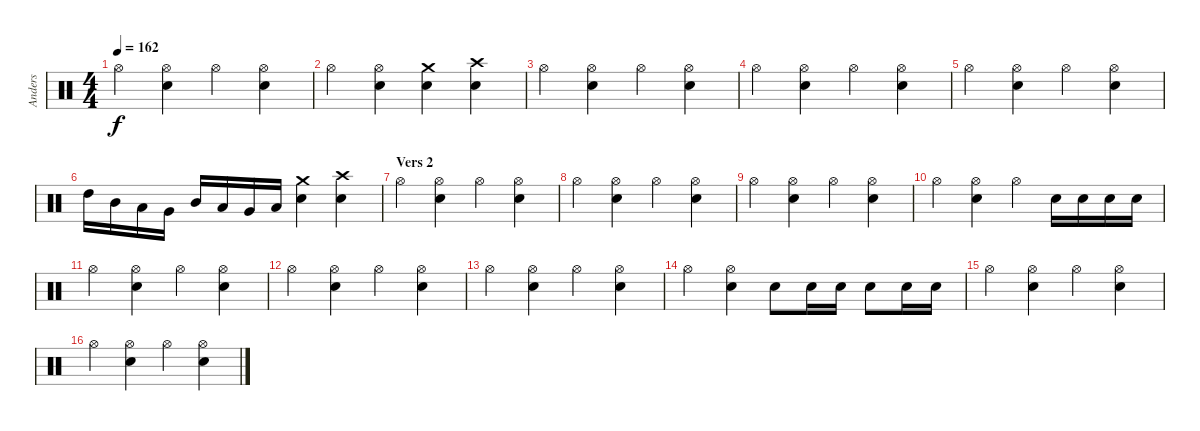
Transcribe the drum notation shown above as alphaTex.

\track ("Anders" "Anders") {instrument percussion}
\staff {score}
\articulation defaults
\ts (4 4)
\tempo 162
\clef neutral
\ks c "Hi-Hat (open)".4{dy f}
("Hi-Hat (open)" "Snare (hit) 2").4 "Hi-Hat (open)".4 ("Hi-Hat (open)" "Snare (hit) 2").4 |
"Hi-Hat (open)".4 ("Hi-Hat (open)" "Snare (hit) 2").4 ("Crash medium (hit)" "Snare (hit) 2").4 ("Crash high (hit)" "Snare (hit) 2").4 |
"Hi-Hat (open)".4 ("Hi-Hat (open)" "Snare (hit) 2").4 "Hi-Hat (open)".4 ("Hi-Hat (open)" "Snare (hit) 2").4 |
"Hi-Hat (open)".4 ("Hi-Hat (open)" "Snare (hit) 2").4 "Hi-Hat (open)".4 ("Hi-Hat (open)" "Snare (hit) 2").4 |
"Hi-Hat (open)".4 ("Hi-Hat (open)" "Snare (hit) 2").4 "Hi-Hat (open)".4 ("Hi-Hat (open)" "Snare (hit) 2").4 |
"High Tom (hit)".16 "Mid Tom (hit)".16 "Low Tom (hit)".16 "Very Low Tom (hit)".16 "Mid Tom (hit)".16 "Low Tom (hit)".16 "Very Low Tom (hit)".16 "Low Floor Tom (hit)".16 ("Crash medium (hit)" "Snare (hit) 2").4 ("Crash high (hit)" "Snare (hit) 2").4 |
\section ("" "Vers 2")
"Hi-Hat (open)".4 ("Hi-Hat (open)" "Snare (hit) 2").4 "Hi-Hat (open)".4 ("Hi-Hat (open)" "Snare (hit) 2").4 |
"Hi-Hat (open)".4 ("Hi-Hat (open)" "Snare (hit) 2").4 "Hi-Hat (open)".4 ("Hi-Hat (open)" "Snare (hit) 2").4 |
"Hi-Hat (open)".4 ("Hi-Hat (open)" "Snare (hit) 2").4 "Hi-Hat (open)".4 ("Hi-Hat (open)" "Snare (hit) 2").4 |
"Hi-Hat (open)".4 ("Hi-Hat (open)" "Snare (hit) 2").4 "Hi-Hat (open)".4 "Snare (hit) 2".16 "Snare (hit) 2".16 "Snare (hit) 2".16 "Snare (hit) 2".16 |
"Hi-Hat (open)".4 ("Hi-Hat (open)" "Snare (hit) 2").4 "Hi-Hat (open)".4 ("Hi-Hat (open)" "Snare (hit) 2").4 |
"Hi-Hat (open)".4 ("Hi-Hat (open)" "Snare (hit) 2").4 "Hi-Hat (open)".4 ("Hi-Hat (open)" "Snare (hit) 2").4 |
"Hi-Hat (open)".4 ("Hi-Hat (open)" "Snare (hit) 2").4 "Hi-Hat (open)".4 ("Hi-Hat (open)" "Snare (hit) 2").4 |
"Hi-Hat (open)".4 ("Hi-Hat (open)" "Snare (hit) 2").4 "Snare (hit) 2".8 "Snare (hit) 2".16 "Snare (hit) 2".16 "Snare (hit) 2".8 "Snare (hit) 2".16 "Snare (hit) 2".16 |
"Hi-Hat (open)".4 ("Hi-Hat (open)" "Snare (hit) 2").4 "Hi-Hat (open)".4 ("Hi-Hat (open)" "Snare (hit) 2").4 |
"Hi-Hat (open)".4 ("Hi-Hat (open)" "Snare (hit) 2").4 "Hi-Hat (open)".4 ("Hi-Hat (open)" "Snare (hit) 2").4
